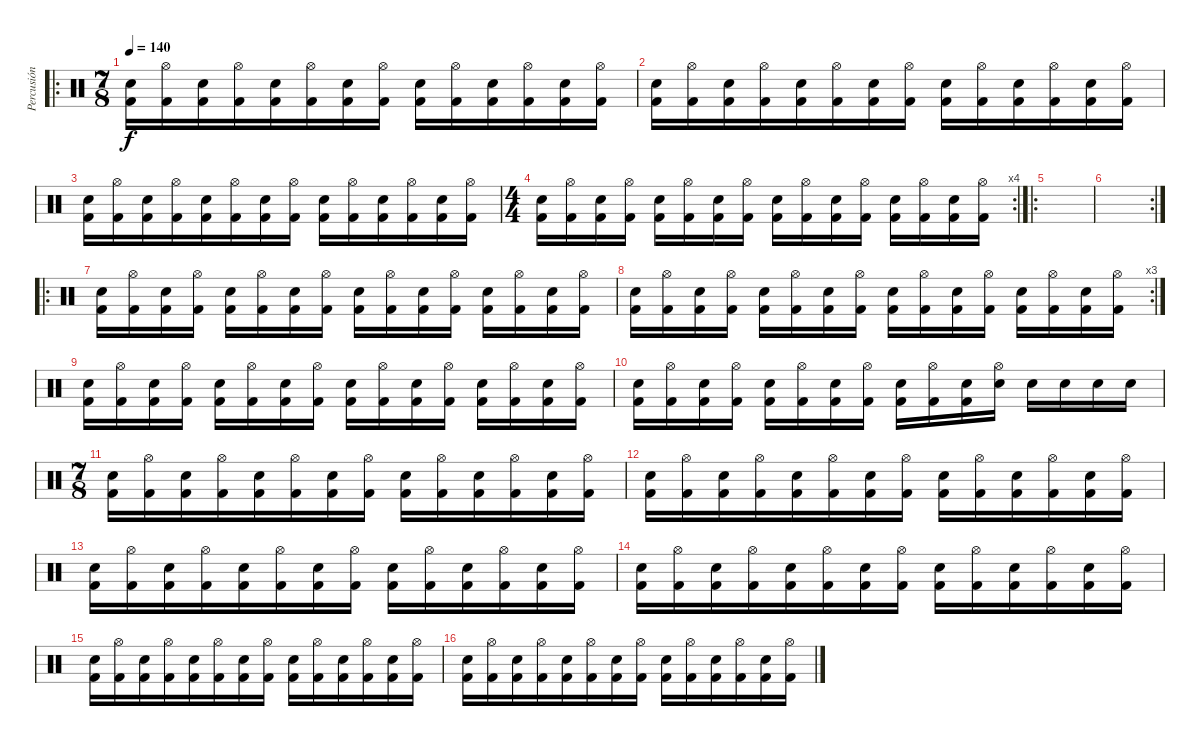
\track ("Percusión" "Percusión") {instrument percussion}
\staff {score}
\articulation defaults
\ro
\ts (7 8)
\tempo 140
\clef neutral
\ks c
("Snare (hit) 2" "Kick (hit) 2").16{dy f} ("Hi-Hat (open)" "Kick (hit) 2").16 ("Snare (hit) 2" "Kick (hit) 2").16 ("Hi-Hat (open)" "Kick (hit) 2").16 ("Snare (hit) 2" "Kick (hit) 2").16 ("Hi-Hat (open)" "Kick (hit) 2").16 ("Snare (hit) 2" "Kick (hit) 2").16 ("Hi-Hat (open)" "Kick (hit) 2").16 ("Snare (hit) 2" "Kick (hit) 2").16 ("Hi-Hat (open)" "Kick (hit) 2").16 ("Snare (hit) 2" "Kick (hit) 2").16 ("Hi-Hat (open)" "Kick (hit) 2").16 ("Snare (hit) 2" "Kick (hit) 2").16 ("Hi-Hat (open)" "Kick (hit) 2").16 |
("Snare (hit) 2" "Kick (hit) 2").16 ("Hi-Hat (open)" "Kick (hit) 2").16 ("Snare (hit) 2" "Kick (hit) 2").16 ("Hi-Hat (open)" "Kick (hit) 2").16 ("Snare (hit) 2" "Kick (hit) 2").16 ("Hi-Hat (open)" "Kick (hit) 2").16 ("Snare (hit) 2" "Kick (hit) 2").16 ("Hi-Hat (open)" "Kick (hit) 2").16 ("Snare (hit) 2" "Kick (hit) 2").16 ("Hi-Hat (open)" "Kick (hit) 2").16 ("Snare (hit) 2" "Kick (hit) 2").16 ("Hi-Hat (open)" "Kick (hit) 2").16 ("Snare (hit) 2" "Kick (hit) 2").16 ("Hi-Hat (open)" "Kick (hit) 2").16 |
("Snare (hit) 2" "Kick (hit) 2").16 ("Hi-Hat (open)" "Kick (hit) 2").16 ("Snare (hit) 2" "Kick (hit) 2").16 ("Hi-Hat (open)" "Kick (hit) 2").16 ("Snare (hit) 2" "Kick (hit) 2").16 ("Hi-Hat (open)" "Kick (hit) 2").16 ("Snare (hit) 2" "Kick (hit) 2").16 ("Hi-Hat (open)" "Kick (hit) 2").16 ("Snare (hit) 2" "Kick (hit) 2").16 ("Hi-Hat (open)" "Kick (hit) 2").16 ("Snare (hit) 2" "Kick (hit) 2").16 ("Hi-Hat (open)" "Kick (hit) 2").16 ("Snare (hit) 2" "Kick (hit) 2").16 ("Hi-Hat (open)" "Kick (hit) 2").16 |
\rc 4
\ts (4 4)
("Snare (hit) 2" "Kick (hit) 2").16 ("Hi-Hat (open)" "Kick (hit) 2").16 ("Snare (hit) 2" "Kick (hit) 2").16 ("Hi-Hat (open)" "Kick (hit) 2").16 ("Snare (hit) 2" "Kick (hit) 2").16 ("Hi-Hat (open)" "Kick (hit) 2").16 ("Snare (hit) 2" "Kick (hit) 2").16 ("Hi-Hat (open)" "Kick (hit) 2").16 ("Snare (hit) 2" "Kick (hit) 2").16 ("Hi-Hat (open)" "Kick (hit) 2").16 ("Snare (hit) 2" "Kick (hit) 2").16 ("Hi-Hat (open)" "Kick (hit) 2").16 ("Snare (hit) 2" "Kick (hit) 2").16 ("Hi-Hat (open)" "Kick (hit) 2").16 ("Snare (hit) 2" "Kick (hit) 2").16 ("Hi-Hat (open)" "Kick (hit) 2").16 |
\ro
|
\rc 2
|
\ro
("Snare (hit) 2" "Kick (hit) 2").16 ("Hi-Hat (open)" "Kick (hit) 2").16 ("Snare (hit) 2" "Kick (hit) 2").16 ("Hi-Hat (open)" "Kick (hit) 2").16 ("Snare (hit) 2" "Kick (hit) 2").16 ("Hi-Hat (open)" "Kick (hit) 2").16 ("Snare (hit) 2" "Kick (hit) 2").16 ("Hi-Hat (open)" "Kick (hit) 2").16 ("Snare (hit) 2" "Kick (hit) 2").16 ("Hi-Hat (open)" "Kick (hit) 2").16 ("Snare (hit) 2" "Kick (hit) 2").16 ("Hi-Hat (open)" "Kick (hit) 2").16 ("Snare (hit) 2" "Kick (hit) 2").16 ("Hi-Hat (open)" "Kick (hit) 2").16 ("Snare (hit) 2" "Kick (hit) 2").16 ("Hi-Hat (open)" "Kick (hit) 2").16 |
\rc 3
("Snare (hit) 2" "Kick (hit) 2").16 ("Hi-Hat (open)" "Kick (hit) 2").16 ("Snare (hit) 2" "Kick (hit) 2").16 ("Hi-Hat (open)" "Kick (hit) 2").16 ("Snare (hit) 2" "Kick (hit) 2").16 ("Hi-Hat (open)" "Kick (hit) 2").16 ("Snare (hit) 2" "Kick (hit) 2").16 ("Hi-Hat (open)" "Kick (hit) 2").16 ("Snare (hit) 2" "Kick (hit) 2").16 ("Hi-Hat (open)" "Kick (hit) 2").16 ("Snare (hit) 2" "Kick (hit) 2").16 ("Hi-Hat (open)" "Kick (hit) 2").16 ("Snare (hit) 2" "Kick (hit) 2").16 ("Hi-Hat (open)" "Kick (hit) 2").16 ("Snare (hit) 2" "Kick (hit) 2").16 ("Hi-Hat (open)" "Kick (hit) 2").16 |
("Snare (hit) 2" "Kick (hit) 2").16 ("Hi-Hat (open)" "Kick (hit) 2").16 ("Snare (hit) 2" "Kick (hit) 2").16 ("Hi-Hat (open)" "Kick (hit) 2").16 ("Snare (hit) 2" "Kick (hit) 2").16 ("Hi-Hat (open)" "Kick (hit) 2").16 ("Snare (hit) 2" "Kick (hit) 2").16 ("Hi-Hat (open)" "Kick (hit) 2").16 ("Snare (hit) 2" "Kick (hit) 2").16 ("Hi-Hat (open)" "Kick (hit) 2").16 ("Snare (hit) 2" "Kick (hit) 2").16 ("Hi-Hat (open)" "Kick (hit) 2").16 ("Snare (hit) 2" "Kick (hit) 2").16 ("Hi-Hat (open)" "Kick (hit) 2").16 ("Snare (hit) 2" "Kick (hit) 2").16 ("Hi-Hat (open)" "Kick (hit) 2").16 |
("Snare (hit) 2" "Kick (hit) 2").16 ("Hi-Hat (open)" "Kick (hit) 2").16 ("Snare (hit) 2" "Kick (hit) 2").16 ("Hi-Hat (open)" "Kick (hit) 2").16 ("Snare (hit) 2" "Kick (hit) 2").16 ("Hi-Hat (open)" "Kick (hit) 2").16 ("Snare (hit) 2" "Kick (hit) 2").16 ("Hi-Hat (open)" "Kick (hit) 2").16 ("Snare (hit) 2" "Kick (hit) 2").16 ("Hi-Hat (open)" "Kick (hit) 2").16 ("Snare (hit) 2" "Kick (hit) 2").16 ("Hi-Hat (open)" "Snare (hit) 2").16 "Snare (hit) 2".16 "Snare (hit) 2".16 "Snare (hit) 2".16 "Snare (hit) 2".16 |
\ts (7 8)
("Snare (hit) 2" "Kick (hit) 2").16 ("Hi-Hat (open)" "Kick (hit) 2").16 ("Snare (hit) 2" "Kick (hit) 2").16 ("Hi-Hat (open)" "Kick (hit) 2").16 ("Snare (hit) 2" "Kick (hit) 2").16 ("Hi-Hat (open)" "Kick (hit) 2").16 ("Snare (hit) 2" "Kick (hit) 2").16 ("Hi-Hat (open)" "Kick (hit) 2").16 ("Snare (hit) 2" "Kick (hit) 2").16 ("Hi-Hat (open)" "Kick (hit) 2").16 ("Snare (hit) 2" "Kick (hit) 2").16 ("Hi-Hat (open)" "Kick (hit) 2").16 ("Snare (hit) 2" "Kick (hit) 2").16 ("Hi-Hat (open)" "Kick (hit) 2").16 |
("Snare (hit) 2" "Kick (hit) 2").16 ("Hi-Hat (open)" "Kick (hit) 2").16 ("Snare (hit) 2" "Kick (hit) 2").16 ("Hi-Hat (open)" "Kick (hit) 2").16 ("Snare (hit) 2" "Kick (hit) 2").16 ("Hi-Hat (open)" "Kick (hit) 2").16 ("Snare (hit) 2" "Kick (hit) 2").16 ("Hi-Hat (open)" "Kick (hit) 2").16 ("Snare (hit) 2" "Kick (hit) 2").16 ("Hi-Hat (open)" "Kick (hit) 2").16 ("Snare (hit) 2" "Kick (hit) 2").16 ("Hi-Hat (open)" "Kick (hit) 2").16 ("Snare (hit) 2" "Kick (hit) 2").16 ("Hi-Hat (open)" "Kick (hit) 2").16 |
("Snare (hit) 2" "Kick (hit) 2").16 ("Hi-Hat (open)" "Kick (hit) 2").16 ("Snare (hit) 2" "Kick (hit) 2").16 ("Hi-Hat (open)" "Kick (hit) 2").16 ("Snare (hit) 2" "Kick (hit) 2").16 ("Hi-Hat (open)" "Kick (hit) 2").16 ("Snare (hit) 2" "Kick (hit) 2").16 ("Hi-Hat (open)" "Kick (hit) 2").16 ("Snare (hit) 2" "Kick (hit) 2").16 ("Hi-Hat (open)" "Kick (hit) 2").16 ("Snare (hit) 2" "Kick (hit) 2").16 ("Hi-Hat (open)" "Kick (hit) 2").16 ("Snare (hit) 2" "Kick (hit) 2").16 ("Hi-Hat (open)" "Kick (hit) 2").16 |
("Snare (hit) 2" "Kick (hit) 2").16 ("Hi-Hat (open)" "Kick (hit) 2").16 ("Snare (hit) 2" "Kick (hit) 2").16 ("Hi-Hat (open)" "Kick (hit) 2").16 ("Snare (hit) 2" "Kick (hit) 2").16 ("Hi-Hat (open)" "Kick (hit) 2").16 ("Snare (hit) 2" "Kick (hit) 2").16 ("Hi-Hat (open)" "Kick (hit) 2").16 ("Snare (hit) 2" "Kick (hit) 2").16 ("Hi-Hat (open)" "Kick (hit) 2").16 ("Snare (hit) 2" "Kick (hit) 2").16 ("Hi-Hat (open)" "Kick (hit) 2").16 ("Snare (hit) 2" "Kick (hit) 2").16 ("Hi-Hat (open)" "Kick (hit) 2").16 |
("Snare (hit) 2" "Kick (hit) 2").16 ("Hi-Hat (open)" "Kick (hit) 2").16 ("Snare (hit) 2" "Kick (hit) 2").16 ("Hi-Hat (open)" "Kick (hit) 2").16 ("Snare (hit) 2" "Kick (hit) 2").16 ("Hi-Hat (open)" "Kick (hit) 2").16 ("Snare (hit) 2" "Kick (hit) 2").16 ("Hi-Hat (open)" "Kick (hit) 2").16 ("Snare (hit) 2" "Kick (hit) 2").16 ("Hi-Hat (open)" "Kick (hit) 2").16 ("Snare (hit) 2" "Kick (hit) 2").16 ("Hi-Hat (open)" "Kick (hit) 2").16 ("Snare (hit) 2" "Kick (hit) 2").16 ("Hi-Hat (open)" "Kick (hit) 2").16 |
("Snare (hit) 2" "Kick (hit) 2").16 ("Hi-Hat (open)" "Kick (hit) 2").16 ("Snare (hit) 2" "Kick (hit) 2").16 ("Hi-Hat (open)" "Kick (hit) 2").16 ("Snare (hit) 2" "Kick (hit) 2").16 ("Hi-Hat (open)" "Kick (hit) 2").16 ("Snare (hit) 2" "Kick (hit) 2").16 ("Hi-Hat (open)" "Kick (hit) 2").16 ("Snare (hit) 2" "Kick (hit) 2").16 ("Hi-Hat (open)" "Kick (hit) 2").16 ("Snare (hit) 2" "Kick (hit) 2").16 ("Hi-Hat (open)" "Kick (hit) 2").16 ("Snare (hit) 2" "Kick (hit) 2").16 ("Hi-Hat (open)" "Kick (hit) 2").16
